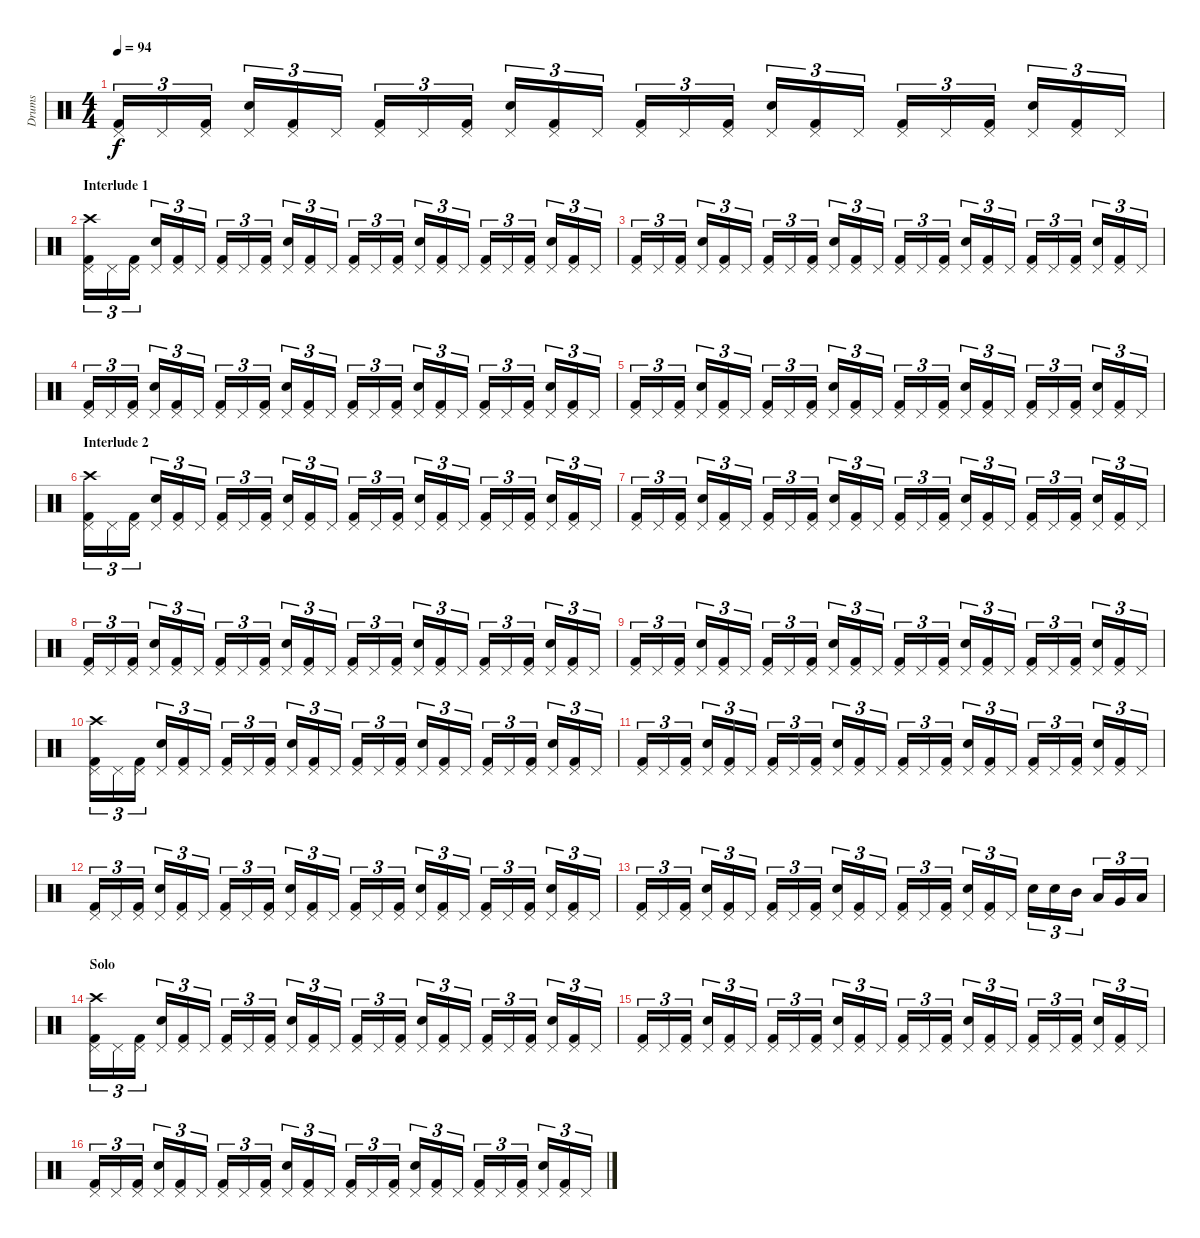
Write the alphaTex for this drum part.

\track ("Drums" "Drums") {instrument percussion}
\staff {score}
\articulation defaults
\ts (4 4)
\tempo 94
\clef neutral
\ks c
("Kick (hit) 2" "Pedal Hi-Hat (hit)").16{tu (3 2) dy f} "Pedal Hi-Hat (hit)".16{tu (3 2)} ("Kick (hit) 2" "Pedal Hi-Hat (hit)").16{tu (3 2)} ("Snare (hit) 2" "Pedal Hi-Hat (hit)").16{tu (3 2)} ("Kick (hit) 2" "Pedal Hi-Hat (hit)").16{tu (3 2)} "Pedal Hi-Hat (hit)".16{tu (3 2)} ("Kick (hit) 2" "Pedal Hi-Hat (hit)").16{tu (3 2)} "Pedal Hi-Hat (hit)".16{tu (3 2)} ("Kick (hit) 2" "Pedal Hi-Hat (hit)").16{tu (3 2)} ("Snare (hit) 2" "Pedal Hi-Hat (hit)").16{tu (3 2)} ("Kick (hit) 2" "Pedal Hi-Hat (hit)").16{tu (3 2)} "Pedal Hi-Hat (hit)".16{tu (3 2)} ("Kick (hit) 2" "Pedal Hi-Hat (hit)").16{tu (3 2)} "Pedal Hi-Hat (hit)".16{tu (3 2)} ("Kick (hit) 2" "Pedal Hi-Hat (hit)").16{tu (3 2)} ("Snare (hit) 2" "Pedal Hi-Hat (hit)").16{tu (3 2)} ("Kick (hit) 2" "Pedal Hi-Hat (hit)").16{tu (3 2)} "Pedal Hi-Hat (hit)".16{tu (3 2)} ("Kick (hit) 2" "Pedal Hi-Hat (hit)").16{tu (3 2)} "Pedal Hi-Hat (hit)".16{tu (3 2)} ("Kick (hit) 2" "Pedal Hi-Hat (hit)").16{tu (3 2)} ("Snare (hit) 2" "Pedal Hi-Hat (hit)").16{tu (3 2)} ("Kick (hit) 2" "Pedal Hi-Hat (hit)").16{tu (3 2)} "Pedal Hi-Hat (hit)".16{tu (3 2)} |
\section ("" "Interlude 1")
("Kick (hit) 2" "Pedal Hi-Hat (hit)" "Crash high (hit)").16{tu (3 2)} "Pedal Hi-Hat (hit)".16{tu (3 2)} ("Kick (hit) 2" "Pedal Hi-Hat (hit)").16{tu (3 2)} ("Snare (hit) 2" "Pedal Hi-Hat (hit)").16{tu (3 2)} ("Kick (hit) 2" "Pedal Hi-Hat (hit)").16{tu (3 2)} "Pedal Hi-Hat (hit)".16{tu (3 2)} ("Kick (hit) 2" "Pedal Hi-Hat (hit)").16{tu (3 2)} "Pedal Hi-Hat (hit)".16{tu (3 2)} ("Kick (hit) 2" "Pedal Hi-Hat (hit)").16{tu (3 2)} ("Snare (hit) 2" "Pedal Hi-Hat (hit)").16{tu (3 2)} ("Kick (hit) 2" "Pedal Hi-Hat (hit)").16{tu (3 2)} "Pedal Hi-Hat (hit)".16{tu (3 2)} ("Kick (hit) 2" "Pedal Hi-Hat (hit)").16{tu (3 2)} "Pedal Hi-Hat (hit)".16{tu (3 2)} ("Kick (hit) 2" "Pedal Hi-Hat (hit)").16{tu (3 2)} ("Snare (hit) 2" "Pedal Hi-Hat (hit)").16{tu (3 2)} ("Kick (hit) 2" "Pedal Hi-Hat (hit)").16{tu (3 2)} "Pedal Hi-Hat (hit)".16{tu (3 2)} ("Kick (hit) 2" "Pedal Hi-Hat (hit)").16{tu (3 2)} "Pedal Hi-Hat (hit)".16{tu (3 2)} ("Kick (hit) 2" "Pedal Hi-Hat (hit)").16{tu (3 2)} ("Snare (hit) 2" "Pedal Hi-Hat (hit)").16{tu (3 2)} ("Kick (hit) 2" "Pedal Hi-Hat (hit)").16{tu (3 2)} "Pedal Hi-Hat (hit)".16{tu (3 2)} |
("Kick (hit) 2" "Pedal Hi-Hat (hit)").16{tu (3 2)} "Pedal Hi-Hat (hit)".16{tu (3 2)} ("Kick (hit) 2" "Pedal Hi-Hat (hit)").16{tu (3 2)} ("Snare (hit) 2" "Pedal Hi-Hat (hit)").16{tu (3 2)} ("Kick (hit) 2" "Pedal Hi-Hat (hit)").16{tu (3 2)} "Pedal Hi-Hat (hit)".16{tu (3 2)} ("Kick (hit) 2" "Pedal Hi-Hat (hit)").16{tu (3 2)} "Pedal Hi-Hat (hit)".16{tu (3 2)} ("Kick (hit) 2" "Pedal Hi-Hat (hit)").16{tu (3 2)} ("Snare (hit) 2" "Pedal Hi-Hat (hit)").16{tu (3 2)} ("Kick (hit) 2" "Pedal Hi-Hat (hit)").16{tu (3 2)} "Pedal Hi-Hat (hit)".16{tu (3 2)} ("Kick (hit) 2" "Pedal Hi-Hat (hit)").16{tu (3 2)} "Pedal Hi-Hat (hit)".16{tu (3 2)} ("Kick (hit) 2" "Pedal Hi-Hat (hit)").16{tu (3 2)} ("Snare (hit) 2" "Pedal Hi-Hat (hit)").16{tu (3 2)} ("Kick (hit) 2" "Pedal Hi-Hat (hit)").16{tu (3 2)} "Pedal Hi-Hat (hit)".16{tu (3 2)} ("Kick (hit) 2" "Pedal Hi-Hat (hit)").16{tu (3 2)} "Pedal Hi-Hat (hit)".16{tu (3 2)} ("Kick (hit) 2" "Pedal Hi-Hat (hit)").16{tu (3 2)} ("Snare (hit) 2" "Pedal Hi-Hat (hit)").16{tu (3 2)} ("Kick (hit) 2" "Pedal Hi-Hat (hit)").16{tu (3 2)} "Pedal Hi-Hat (hit)".16{tu (3 2)} |
("Kick (hit) 2" "Pedal Hi-Hat (hit)").16{tu (3 2)} "Pedal Hi-Hat (hit)".16{tu (3 2)} ("Kick (hit) 2" "Pedal Hi-Hat (hit)").16{tu (3 2)} ("Snare (hit) 2" "Pedal Hi-Hat (hit)").16{tu (3 2)} ("Kick (hit) 2" "Pedal Hi-Hat (hit)").16{tu (3 2)} "Pedal Hi-Hat (hit)".16{tu (3 2)} ("Kick (hit) 2" "Pedal Hi-Hat (hit)").16{tu (3 2)} "Pedal Hi-Hat (hit)".16{tu (3 2)} ("Kick (hit) 2" "Pedal Hi-Hat (hit)").16{tu (3 2)} ("Snare (hit) 2" "Pedal Hi-Hat (hit)").16{tu (3 2)} ("Kick (hit) 2" "Pedal Hi-Hat (hit)").16{tu (3 2)} "Pedal Hi-Hat (hit)".16{tu (3 2)} ("Kick (hit) 2" "Pedal Hi-Hat (hit)").16{tu (3 2)} "Pedal Hi-Hat (hit)".16{tu (3 2)} ("Kick (hit) 2" "Pedal Hi-Hat (hit)").16{tu (3 2)} ("Snare (hit) 2" "Pedal Hi-Hat (hit)").16{tu (3 2)} ("Kick (hit) 2" "Pedal Hi-Hat (hit)").16{tu (3 2)} "Pedal Hi-Hat (hit)".16{tu (3 2)} ("Kick (hit) 2" "Pedal Hi-Hat (hit)").16{tu (3 2)} "Pedal Hi-Hat (hit)".16{tu (3 2)} ("Kick (hit) 2" "Pedal Hi-Hat (hit)").16{tu (3 2)} ("Snare (hit) 2" "Pedal Hi-Hat (hit)").16{tu (3 2)} ("Kick (hit) 2" "Pedal Hi-Hat (hit)").16{tu (3 2)} "Pedal Hi-Hat (hit)".16{tu (3 2)} |
("Kick (hit) 2" "Pedal Hi-Hat (hit)").16{tu (3 2)} "Pedal Hi-Hat (hit)".16{tu (3 2)} ("Kick (hit) 2" "Pedal Hi-Hat (hit)").16{tu (3 2)} ("Snare (hit) 2" "Pedal Hi-Hat (hit)").16{tu (3 2)} ("Kick (hit) 2" "Pedal Hi-Hat (hit)").16{tu (3 2)} "Pedal Hi-Hat (hit)".16{tu (3 2)} ("Kick (hit) 2" "Pedal Hi-Hat (hit)").16{tu (3 2)} "Pedal Hi-Hat (hit)".16{tu (3 2)} ("Kick (hit) 2" "Pedal Hi-Hat (hit)").16{tu (3 2)} ("Snare (hit) 2" "Pedal Hi-Hat (hit)").16{tu (3 2)} ("Kick (hit) 2" "Pedal Hi-Hat (hit)").16{tu (3 2)} "Pedal Hi-Hat (hit)".16{tu (3 2)} ("Kick (hit) 2" "Pedal Hi-Hat (hit)").16{tu (3 2)} "Pedal Hi-Hat (hit)".16{tu (3 2)} ("Kick (hit) 2" "Pedal Hi-Hat (hit)").16{tu (3 2)} ("Snare (hit) 2" "Pedal Hi-Hat (hit)").16{tu (3 2)} ("Kick (hit) 2" "Pedal Hi-Hat (hit)").16{tu (3 2)} "Pedal Hi-Hat (hit)".16{tu (3 2)} ("Kick (hit) 2" "Pedal Hi-Hat (hit)").16{tu (3 2)} "Pedal Hi-Hat (hit)".16{tu (3 2)} ("Kick (hit) 2" "Pedal Hi-Hat (hit)").16{tu (3 2)} ("Snare (hit) 2" "Pedal Hi-Hat (hit)").16{tu (3 2)} ("Kick (hit) 2" "Pedal Hi-Hat (hit)").16{tu (3 2)} "Pedal Hi-Hat (hit)".16{tu (3 2)} |
\section ("" "Interlude 2")
("Kick (hit) 2" "Pedal Hi-Hat (hit)" "Crash high (hit)").16{tu (3 2)} "Pedal Hi-Hat (hit)".16{tu (3 2)} ("Kick (hit) 2" "Pedal Hi-Hat (hit)").16{tu (3 2)} ("Snare (hit) 2" "Pedal Hi-Hat (hit)").16{tu (3 2)} ("Kick (hit) 2" "Pedal Hi-Hat (hit)").16{tu (3 2)} "Pedal Hi-Hat (hit)".16{tu (3 2)} ("Kick (hit) 2" "Pedal Hi-Hat (hit)").16{tu (3 2)} "Pedal Hi-Hat (hit)".16{tu (3 2)} ("Kick (hit) 2" "Pedal Hi-Hat (hit)").16{tu (3 2)} ("Snare (hit) 2" "Pedal Hi-Hat (hit)").16{tu (3 2)} ("Kick (hit) 2" "Pedal Hi-Hat (hit)").16{tu (3 2)} "Pedal Hi-Hat (hit)".16{tu (3 2)} ("Kick (hit) 2" "Pedal Hi-Hat (hit)").16{tu (3 2)} "Pedal Hi-Hat (hit)".16{tu (3 2)} ("Kick (hit) 2" "Pedal Hi-Hat (hit)").16{tu (3 2)} ("Snare (hit) 2" "Pedal Hi-Hat (hit)").16{tu (3 2)} ("Kick (hit) 2" "Pedal Hi-Hat (hit)").16{tu (3 2)} "Pedal Hi-Hat (hit)".16{tu (3 2)} ("Kick (hit) 2" "Pedal Hi-Hat (hit)").16{tu (3 2)} "Pedal Hi-Hat (hit)".16{tu (3 2)} ("Kick (hit) 2" "Pedal Hi-Hat (hit)").16{tu (3 2)} ("Snare (hit) 2" "Pedal Hi-Hat (hit)").16{tu (3 2)} ("Kick (hit) 2" "Pedal Hi-Hat (hit)").16{tu (3 2)} "Pedal Hi-Hat (hit)".16{tu (3 2)} |
("Kick (hit) 2" "Pedal Hi-Hat (hit)").16{tu (3 2)} "Pedal Hi-Hat (hit)".16{tu (3 2)} ("Kick (hit) 2" "Pedal Hi-Hat (hit)").16{tu (3 2)} ("Snare (hit) 2" "Pedal Hi-Hat (hit)").16{tu (3 2)} ("Kick (hit) 2" "Pedal Hi-Hat (hit)").16{tu (3 2)} "Pedal Hi-Hat (hit)".16{tu (3 2)} ("Kick (hit) 2" "Pedal Hi-Hat (hit)").16{tu (3 2)} "Pedal Hi-Hat (hit)".16{tu (3 2)} ("Kick (hit) 2" "Pedal Hi-Hat (hit)").16{tu (3 2)} ("Snare (hit) 2" "Pedal Hi-Hat (hit)").16{tu (3 2)} ("Kick (hit) 2" "Pedal Hi-Hat (hit)").16{tu (3 2)} "Pedal Hi-Hat (hit)".16{tu (3 2)} ("Kick (hit) 2" "Pedal Hi-Hat (hit)").16{tu (3 2)} "Pedal Hi-Hat (hit)".16{tu (3 2)} ("Kick (hit) 2" "Pedal Hi-Hat (hit)").16{tu (3 2)} ("Snare (hit) 2" "Pedal Hi-Hat (hit)").16{tu (3 2)} ("Kick (hit) 2" "Pedal Hi-Hat (hit)").16{tu (3 2)} "Pedal Hi-Hat (hit)".16{tu (3 2)} ("Kick (hit) 2" "Pedal Hi-Hat (hit)").16{tu (3 2)} "Pedal Hi-Hat (hit)".16{tu (3 2)} ("Kick (hit) 2" "Pedal Hi-Hat (hit)").16{tu (3 2)} ("Snare (hit) 2" "Pedal Hi-Hat (hit)").16{tu (3 2)} ("Kick (hit) 2" "Pedal Hi-Hat (hit)").16{tu (3 2)} "Pedal Hi-Hat (hit)".16{tu (3 2)} |
("Kick (hit) 2" "Pedal Hi-Hat (hit)").16{tu (3 2)} "Pedal Hi-Hat (hit)".16{tu (3 2)} ("Kick (hit) 2" "Pedal Hi-Hat (hit)").16{tu (3 2)} ("Snare (hit) 2" "Pedal Hi-Hat (hit)").16{tu (3 2)} ("Kick (hit) 2" "Pedal Hi-Hat (hit)").16{tu (3 2)} "Pedal Hi-Hat (hit)".16{tu (3 2)} ("Kick (hit) 2" "Pedal Hi-Hat (hit)").16{tu (3 2)} "Pedal Hi-Hat (hit)".16{tu (3 2)} ("Kick (hit) 2" "Pedal Hi-Hat (hit)").16{tu (3 2)} ("Snare (hit) 2" "Pedal Hi-Hat (hit)").16{tu (3 2)} ("Kick (hit) 2" "Pedal Hi-Hat (hit)").16{tu (3 2)} "Pedal Hi-Hat (hit)".16{tu (3 2)} ("Kick (hit) 2" "Pedal Hi-Hat (hit)").16{tu (3 2)} "Pedal Hi-Hat (hit)".16{tu (3 2)} ("Kick (hit) 2" "Pedal Hi-Hat (hit)").16{tu (3 2)} ("Snare (hit) 2" "Pedal Hi-Hat (hit)").16{tu (3 2)} ("Kick (hit) 2" "Pedal Hi-Hat (hit)").16{tu (3 2)} "Pedal Hi-Hat (hit)".16{tu (3 2)} ("Kick (hit) 2" "Pedal Hi-Hat (hit)").16{tu (3 2)} "Pedal Hi-Hat (hit)".16{tu (3 2)} ("Kick (hit) 2" "Pedal Hi-Hat (hit)").16{tu (3 2)} ("Snare (hit) 2" "Pedal Hi-Hat (hit)").16{tu (3 2)} ("Kick (hit) 2" "Pedal Hi-Hat (hit)").16{tu (3 2)} "Pedal Hi-Hat (hit)".16{tu (3 2)} |
("Kick (hit) 2" "Pedal Hi-Hat (hit)").16{tu (3 2)} "Pedal Hi-Hat (hit)".16{tu (3 2)} ("Kick (hit) 2" "Pedal Hi-Hat (hit)").16{tu (3 2)} ("Snare (hit) 2" "Pedal Hi-Hat (hit)").16{tu (3 2)} ("Kick (hit) 2" "Pedal Hi-Hat (hit)").16{tu (3 2)} "Pedal Hi-Hat (hit)".16{tu (3 2)} ("Kick (hit) 2" "Pedal Hi-Hat (hit)").16{tu (3 2)} "Pedal Hi-Hat (hit)".16{tu (3 2)} ("Kick (hit) 2" "Pedal Hi-Hat (hit)").16{tu (3 2)} ("Snare (hit) 2" "Pedal Hi-Hat (hit)").16{tu (3 2)} ("Kick (hit) 2" "Pedal Hi-Hat (hit)").16{tu (3 2)} "Pedal Hi-Hat (hit)".16{tu (3 2)} ("Kick (hit) 2" "Pedal Hi-Hat (hit)").16{tu (3 2)} "Pedal Hi-Hat (hit)".16{tu (3 2)} ("Kick (hit) 2" "Pedal Hi-Hat (hit)").16{tu (3 2)} ("Snare (hit) 2" "Pedal Hi-Hat (hit)").16{tu (3 2)} ("Kick (hit) 2" "Pedal Hi-Hat (hit)").16{tu (3 2)} "Pedal Hi-Hat (hit)".16{tu (3 2)} ("Kick (hit) 2" "Pedal Hi-Hat (hit)").16{tu (3 2)} "Pedal Hi-Hat (hit)".16{tu (3 2)} ("Kick (hit) 2" "Pedal Hi-Hat (hit)").16{tu (3 2)} ("Snare (hit) 2" "Pedal Hi-Hat (hit)").16{tu (3 2)} ("Kick (hit) 2" "Pedal Hi-Hat (hit)").16{tu (3 2)} "Pedal Hi-Hat (hit)".16{tu (3 2)} |
("Kick (hit) 2" "Pedal Hi-Hat (hit)" "Crash high (hit)").16{tu (3 2)} "Pedal Hi-Hat (hit)".16{tu (3 2)} ("Kick (hit) 2" "Pedal Hi-Hat (hit)").16{tu (3 2)} ("Snare (hit) 2" "Pedal Hi-Hat (hit)").16{tu (3 2)} ("Kick (hit) 2" "Pedal Hi-Hat (hit)").16{tu (3 2)} "Pedal Hi-Hat (hit)".16{tu (3 2)} ("Kick (hit) 2" "Pedal Hi-Hat (hit)").16{tu (3 2)} "Pedal Hi-Hat (hit)".16{tu (3 2)} ("Kick (hit) 2" "Pedal Hi-Hat (hit)").16{tu (3 2)} ("Snare (hit) 2" "Pedal Hi-Hat (hit)").16{tu (3 2)} ("Kick (hit) 2" "Pedal Hi-Hat (hit)").16{tu (3 2)} "Pedal Hi-Hat (hit)".16{tu (3 2)} ("Kick (hit) 2" "Pedal Hi-Hat (hit)").16{tu (3 2)} "Pedal Hi-Hat (hit)".16{tu (3 2)} ("Kick (hit) 2" "Pedal Hi-Hat (hit)").16{tu (3 2)} ("Snare (hit) 2" "Pedal Hi-Hat (hit)").16{tu (3 2)} ("Kick (hit) 2" "Pedal Hi-Hat (hit)").16{tu (3 2)} "Pedal Hi-Hat (hit)".16{tu (3 2)} ("Kick (hit) 2" "Pedal Hi-Hat (hit)").16{tu (3 2)} "Pedal Hi-Hat (hit)".16{tu (3 2)} ("Kick (hit) 2" "Pedal Hi-Hat (hit)").16{tu (3 2)} ("Snare (hit) 2" "Pedal Hi-Hat (hit)").16{tu (3 2)} ("Kick (hit) 2" "Pedal Hi-Hat (hit)").16{tu (3 2)} "Pedal Hi-Hat (hit)".16{tu (3 2)} |
("Kick (hit) 2" "Pedal Hi-Hat (hit)").16{tu (3 2)} "Pedal Hi-Hat (hit)".16{tu (3 2)} ("Kick (hit) 2" "Pedal Hi-Hat (hit)").16{tu (3 2)} ("Snare (hit) 2" "Pedal Hi-Hat (hit)").16{tu (3 2)} ("Kick (hit) 2" "Pedal Hi-Hat (hit)").16{tu (3 2)} "Pedal Hi-Hat (hit)".16{tu (3 2)} ("Kick (hit) 2" "Pedal Hi-Hat (hit)").16{tu (3 2)} "Pedal Hi-Hat (hit)".16{tu (3 2)} ("Kick (hit) 2" "Pedal Hi-Hat (hit)").16{tu (3 2)} ("Snare (hit) 2" "Pedal Hi-Hat (hit)").16{tu (3 2)} ("Kick (hit) 2" "Pedal Hi-Hat (hit)").16{tu (3 2)} "Pedal Hi-Hat (hit)".16{tu (3 2)} ("Kick (hit) 2" "Pedal Hi-Hat (hit)").16{tu (3 2)} "Pedal Hi-Hat (hit)".16{tu (3 2)} ("Kick (hit) 2" "Pedal Hi-Hat (hit)").16{tu (3 2)} ("Snare (hit) 2" "Pedal Hi-Hat (hit)").16{tu (3 2)} ("Kick (hit) 2" "Pedal Hi-Hat (hit)").16{tu (3 2)} "Pedal Hi-Hat (hit)".16{tu (3 2)} ("Kick (hit) 2" "Pedal Hi-Hat (hit)").16{tu (3 2)} "Pedal Hi-Hat (hit)".16{tu (3 2)} ("Kick (hit) 2" "Pedal Hi-Hat (hit)").16{tu (3 2)} ("Snare (hit) 2" "Pedal Hi-Hat (hit)").16{tu (3 2)} ("Kick (hit) 2" "Pedal Hi-Hat (hit)").16{tu (3 2)} "Pedal Hi-Hat (hit)".16{tu (3 2)} |
("Kick (hit) 2" "Pedal Hi-Hat (hit)").16{tu (3 2)} "Pedal Hi-Hat (hit)".16{tu (3 2)} ("Kick (hit) 2" "Pedal Hi-Hat (hit)").16{tu (3 2)} ("Snare (hit) 2" "Pedal Hi-Hat (hit)").16{tu (3 2)} ("Kick (hit) 2" "Pedal Hi-Hat (hit)").16{tu (3 2)} "Pedal Hi-Hat (hit)".16{tu (3 2)} ("Kick (hit) 2" "Pedal Hi-Hat (hit)").16{tu (3 2)} "Pedal Hi-Hat (hit)".16{tu (3 2)} ("Kick (hit) 2" "Pedal Hi-Hat (hit)").16{tu (3 2)} ("Snare (hit) 2" "Pedal Hi-Hat (hit)").16{tu (3 2)} ("Kick (hit) 2" "Pedal Hi-Hat (hit)").16{tu (3 2)} "Pedal Hi-Hat (hit)".16{tu (3 2)} ("Kick (hit) 2" "Pedal Hi-Hat (hit)").16{tu (3 2)} "Pedal Hi-Hat (hit)".16{tu (3 2)} ("Kick (hit) 2" "Pedal Hi-Hat (hit)").16{tu (3 2)} ("Snare (hit) 2" "Pedal Hi-Hat (hit)").16{tu (3 2)} ("Kick (hit) 2" "Pedal Hi-Hat (hit)").16{tu (3 2)} "Pedal Hi-Hat (hit)".16{tu (3 2)} ("Kick (hit) 2" "Pedal Hi-Hat (hit)").16{tu (3 2)} "Pedal Hi-Hat (hit)".16{tu (3 2)} ("Kick (hit) 2" "Pedal Hi-Hat (hit)").16{tu (3 2)} ("Snare (hit) 2" "Pedal Hi-Hat (hit)").16{tu (3 2)} ("Kick (hit) 2" "Pedal Hi-Hat (hit)").16{tu (3 2)} "Pedal Hi-Hat (hit)".16{tu (3 2)} |
("Kick (hit) 2" "Pedal Hi-Hat (hit)").16{tu (3 2)} "Pedal Hi-Hat (hit)".16{tu (3 2)} ("Kick (hit) 2" "Pedal Hi-Hat (hit)").16{tu (3 2)} ("Snare (hit) 2" "Pedal Hi-Hat (hit)").16{tu (3 2)} ("Kick (hit) 2" "Pedal Hi-Hat (hit)").16{tu (3 2)} "Pedal Hi-Hat (hit)".16{tu (3 2)} ("Kick (hit) 2" "Pedal Hi-Hat (hit)").16{tu (3 2)} "Pedal Hi-Hat (hit)".16{tu (3 2)} ("Kick (hit) 2" "Pedal Hi-Hat (hit)").16{tu (3 2)} ("Snare (hit) 2" "Pedal Hi-Hat (hit)").16{tu (3 2)} ("Kick (hit) 2" "Pedal Hi-Hat (hit)").16{tu (3 2)} "Pedal Hi-Hat (hit)".16{tu (3 2)} ("Kick (hit) 2" "Pedal Hi-Hat (hit)").16{tu (3 2)} "Pedal Hi-Hat (hit)".16{tu (3 2)} ("Kick (hit) 2" "Pedal Hi-Hat (hit)").16{tu (3 2)} ("Snare (hit) 2" "Pedal Hi-Hat (hit)").16{tu (3 2)} ("Kick (hit) 2" "Pedal Hi-Hat (hit)").16{tu (3 2)} "Pedal Hi-Hat (hit)".16{tu (3 2)} "Snare (hit) 2".16{tu (3 2)} "Snare (hit) 2".16{tu (3 2)} "Mid Tom (hit)".16{tu (3 2)} "Low Tom (hit)".16{tu (3 2)} "Very Low Tom (hit)".16{tu (3 2)} "Low Floor Tom (hit)".16{tu (3 2)} |
\section ("" "Solo")
("Kick (hit) 2" "Pedal Hi-Hat (hit)" "Crash high (hit)").16{tu (3 2)} "Pedal Hi-Hat (hit)".16{tu (3 2)} ("Kick (hit) 2" "Pedal Hi-Hat (hit)").16{tu (3 2)} ("Snare (hit) 2" "Pedal Hi-Hat (hit)").16{tu (3 2)} ("Kick (hit) 2" "Pedal Hi-Hat (hit)").16{tu (3 2)} "Pedal Hi-Hat (hit)".16{tu (3 2)} ("Kick (hit) 2" "Pedal Hi-Hat (hit)").16{tu (3 2)} "Pedal Hi-Hat (hit)".16{tu (3 2)} ("Kick (hit) 2" "Pedal Hi-Hat (hit)").16{tu (3 2)} ("Snare (hit) 2" "Pedal Hi-Hat (hit)").16{tu (3 2)} ("Kick (hit) 2" "Pedal Hi-Hat (hit)").16{tu (3 2)} "Pedal Hi-Hat (hit)".16{tu (3 2)} ("Kick (hit) 2" "Pedal Hi-Hat (hit)").16{tu (3 2)} "Pedal Hi-Hat (hit)".16{tu (3 2)} ("Kick (hit) 2" "Pedal Hi-Hat (hit)").16{tu (3 2)} ("Snare (hit) 2" "Pedal Hi-Hat (hit)").16{tu (3 2)} ("Kick (hit) 2" "Pedal Hi-Hat (hit)").16{tu (3 2)} "Pedal Hi-Hat (hit)".16{tu (3 2)} ("Kick (hit) 2" "Pedal Hi-Hat (hit)").16{tu (3 2)} "Pedal Hi-Hat (hit)".16{tu (3 2)} ("Kick (hit) 2" "Pedal Hi-Hat (hit)").16{tu (3 2)} ("Snare (hit) 2" "Pedal Hi-Hat (hit)").16{tu (3 2)} ("Kick (hit) 2" "Pedal Hi-Hat (hit)").16{tu (3 2)} "Pedal Hi-Hat (hit)".16{tu (3 2)} |
("Kick (hit) 2" "Pedal Hi-Hat (hit)").16{tu (3 2)} "Pedal Hi-Hat (hit)".16{tu (3 2)} ("Kick (hit) 2" "Pedal Hi-Hat (hit)").16{tu (3 2)} ("Snare (hit) 2" "Pedal Hi-Hat (hit)").16{tu (3 2)} ("Kick (hit) 2" "Pedal Hi-Hat (hit)").16{tu (3 2)} "Pedal Hi-Hat (hit)".16{tu (3 2)} ("Kick (hit) 2" "Pedal Hi-Hat (hit)").16{tu (3 2)} "Pedal Hi-Hat (hit)".16{tu (3 2)} ("Kick (hit) 2" "Pedal Hi-Hat (hit)").16{tu (3 2)} ("Snare (hit) 2" "Pedal Hi-Hat (hit)").16{tu (3 2)} ("Kick (hit) 2" "Pedal Hi-Hat (hit)").16{tu (3 2)} "Pedal Hi-Hat (hit)".16{tu (3 2)} ("Kick (hit) 2" "Pedal Hi-Hat (hit)").16{tu (3 2)} "Pedal Hi-Hat (hit)".16{tu (3 2)} ("Kick (hit) 2" "Pedal Hi-Hat (hit)").16{tu (3 2)} ("Snare (hit) 2" "Pedal Hi-Hat (hit)").16{tu (3 2)} ("Kick (hit) 2" "Pedal Hi-Hat (hit)").16{tu (3 2)} "Pedal Hi-Hat (hit)".16{tu (3 2)} ("Kick (hit) 2" "Pedal Hi-Hat (hit)").16{tu (3 2)} "Pedal Hi-Hat (hit)".16{tu (3 2)} ("Kick (hit) 2" "Pedal Hi-Hat (hit)").16{tu (3 2)} ("Snare (hit) 2" "Pedal Hi-Hat (hit)").16{tu (3 2)} ("Kick (hit) 2" "Pedal Hi-Hat (hit)").16{tu (3 2)} "Pedal Hi-Hat (hit)".16{tu (3 2)} |
("Kick (hit) 2" "Pedal Hi-Hat (hit)").16{tu (3 2)} "Pedal Hi-Hat (hit)".16{tu (3 2)} ("Kick (hit) 2" "Pedal Hi-Hat (hit)").16{tu (3 2)} ("Snare (hit) 2" "Pedal Hi-Hat (hit)").16{tu (3 2)} ("Kick (hit) 2" "Pedal Hi-Hat (hit)").16{tu (3 2)} "Pedal Hi-Hat (hit)".16{tu (3 2)} ("Kick (hit) 2" "Pedal Hi-Hat (hit)").16{tu (3 2)} "Pedal Hi-Hat (hit)".16{tu (3 2)} ("Kick (hit) 2" "Pedal Hi-Hat (hit)").16{tu (3 2)} ("Snare (hit) 2" "Pedal Hi-Hat (hit)").16{tu (3 2)} ("Kick (hit) 2" "Pedal Hi-Hat (hit)").16{tu (3 2)} "Pedal Hi-Hat (hit)".16{tu (3 2)} ("Kick (hit) 2" "Pedal Hi-Hat (hit)").16{tu (3 2)} "Pedal Hi-Hat (hit)".16{tu (3 2)} ("Kick (hit) 2" "Pedal Hi-Hat (hit)").16{tu (3 2)} ("Snare (hit) 2" "Pedal Hi-Hat (hit)").16{tu (3 2)} ("Kick (hit) 2" "Pedal Hi-Hat (hit)").16{tu (3 2)} "Pedal Hi-Hat (hit)".16{tu (3 2)} ("Kick (hit) 2" "Pedal Hi-Hat (hit)").16{tu (3 2)} "Pedal Hi-Hat (hit)".16{tu (3 2)} ("Kick (hit) 2" "Pedal Hi-Hat (hit)").16{tu (3 2)} ("Snare (hit) 2" "Pedal Hi-Hat (hit)").16{tu (3 2)} ("Kick (hit) 2" "Pedal Hi-Hat (hit)").16{tu (3 2)} "Pedal Hi-Hat (hit)".16{tu (3 2)}
